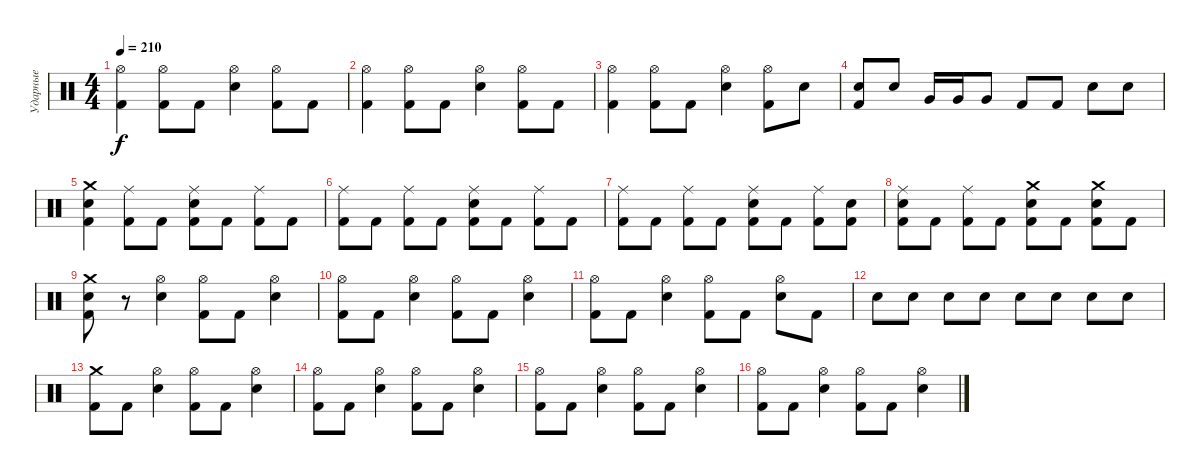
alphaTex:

\track ("Ударные" "Ударные") {instrument percussion}
\staff {score}
\articulation defaults
\ts (4 4)
\tempo 210
\clef neutral
\ks c
("Hi-Hat (open)" "Kick (hit) 2").4{dy f} ("Hi-Hat (open)" "Kick (hit) 2").8 "Kick (hit) 2".8 ("Hi-Hat (open)" "Snare (hit) 2").4 ("Hi-Hat (open)" "Kick (hit) 2").8 "Kick (hit) 2".8 |
("Hi-Hat (open)" "Kick (hit) 2").4 ("Hi-Hat (open)" "Kick (hit) 2").8 "Kick (hit) 2".8 ("Hi-Hat (open)" "Snare (hit) 2").4 ("Hi-Hat (open)" "Kick (hit) 2").8 "Kick (hit) 2".8 |
("Hi-Hat (open)" "Kick (hit) 2").4 ("Hi-Hat (open)" "Kick (hit) 2").8 "Kick (hit) 2".8 ("Hi-Hat (open)" "Snare (hit) 2").4 ("Hi-Hat (open)" "Kick (hit) 2").8 "Snare (hit) 2".8 |
("Snare (hit) 2" "Kick (hit) 2").8 "Snare (hit) 2".8 "Very Low Tom (hit)".16 "Very Low Tom (hit)".16 "Very Low Tom (hit)".8 "Kick (hit) 2".8 "Kick (hit) 2".8 "Snare (hit) 2".8 "Snare (hit) 2".8 |
("Crash medium (hit)" "Snare (hit) 2" "Kick (hit) 2").4 ("Ride (middle)" "Kick (hit) 2").8 "Kick (hit) 2".8 ("Ride (middle)" "Snare (hit) 2" "Kick (hit) 2").8 "Kick (hit) 2".8 ("Ride (middle)" "Kick (hit) 2").8 "Kick (hit) 2".8 |
("Ride (middle)" "Kick (hit) 2").8 "Kick (hit) 2".8 ("Ride (middle)" "Kick (hit) 2").8 "Kick (hit) 2".8 ("Ride (middle)" "Snare (hit) 2" "Kick (hit) 2").8 "Kick (hit) 2".8 ("Ride (middle)" "Kick (hit) 2").8 "Kick (hit) 2".8 |
("Ride (middle)" "Kick (hit) 2").8 "Kick (hit) 2".8 ("Ride (middle)" "Kick (hit) 2").8 "Kick (hit) 2".8 ("Ride (middle)" "Snare (hit) 2" "Kick (hit) 2").8 "Kick (hit) 2".8 ("Ride (middle)" "Kick (hit) 2").8 ("Snare (hit) 2" "Kick (hit) 2").8 |
("Ride (middle)" "Snare (hit) 2" "Kick (hit) 2").8 "Kick (hit) 2".8 ("Ride (middle)" "Kick (hit) 2").8 "Kick (hit) 2".8 ("Crash medium (hit)" "Snare (hit) 2" "Kick (hit) 2").8 "Kick (hit) 2".8 ("Crash medium (hit)" "Snare (hit) 2" "Kick (hit) 2").8 "Kick (hit) 2".8 |
("Crash medium (hit)" "Snare (hit) 2" "Kick (hit) 2").8 r.8 ("Hi-Hat (open)" "Snare (hit) 2").4 ("Hi-Hat (open)" "Kick (hit) 2").8 "Kick (hit) 2".8 ("Hi-Hat (open)" "Snare (hit) 2").4 |
("Hi-Hat (open)" "Kick (hit) 2").8 "Kick (hit) 2".8 ("Hi-Hat (open)" "Snare (hit) 2").4 ("Hi-Hat (open)" "Kick (hit) 2").8 "Kick (hit) 2".8 ("Hi-Hat (open)" "Snare (hit) 2").4 |
("Hi-Hat (open)" "Kick (hit) 2").8 "Kick (hit) 2".8 ("Hi-Hat (open)" "Snare (hit) 2").4 ("Hi-Hat (open)" "Kick (hit) 2").8 "Kick (hit) 2".8 ("Hi-Hat (open)" "Snare (hit) 2").8 "Kick (hit) 2".8 |
"Snare (hit) 2".8 "Snare (hit) 2".8 "Snare (hit) 2".8 "Snare (hit) 2".8 "Snare (hit) 2".8 "Snare (hit) 2".8 "Snare (hit) 2".8 "Snare (hit) 2".8 |
("Crash medium (hit)" "Kick (hit) 2").8 "Kick (hit) 2".8 ("Hi-Hat (open)" "Snare (hit) 2").4 ("Hi-Hat (open)" "Kick (hit) 2").8 "Kick (hit) 2".8 ("Hi-Hat (open)" "Snare (hit) 2").4 |
("Hi-Hat (open)" "Kick (hit) 2").8 "Kick (hit) 2".8 ("Hi-Hat (open)" "Snare (hit) 2").4 ("Hi-Hat (open)" "Kick (hit) 2").8 "Kick (hit) 2".8 ("Hi-Hat (open)" "Snare (hit) 2").4 |
("Hi-Hat (open)" "Kick (hit) 2").8 "Kick (hit) 2".8 ("Hi-Hat (open)" "Snare (hit) 2").4 ("Hi-Hat (open)" "Kick (hit) 2").8 "Kick (hit) 2".8 ("Hi-Hat (open)" "Snare (hit) 2").4 |
("Hi-Hat (open)" "Kick (hit) 2").8 "Kick (hit) 2".8 ("Hi-Hat (open)" "Snare (hit) 2").4 ("Hi-Hat (open)" "Kick (hit) 2").8 "Kick (hit) 2".8 ("Hi-Hat (open)" "Snare (hit) 2").4
